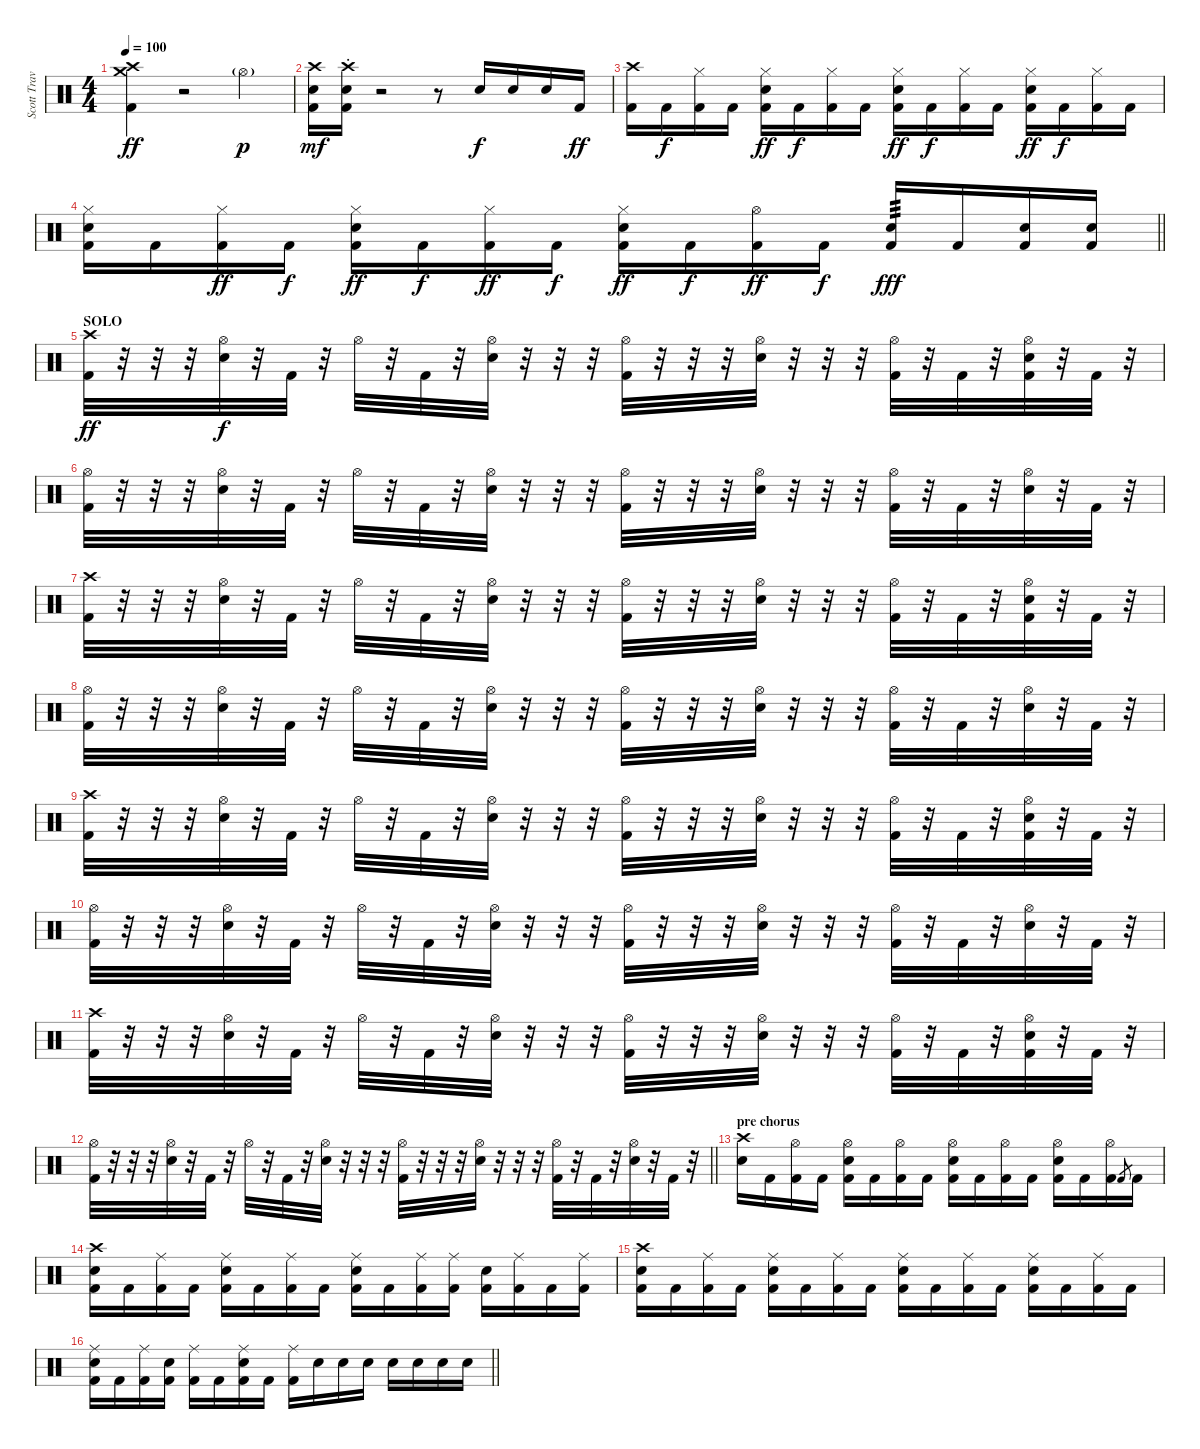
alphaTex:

\track ("Scott Travis" "Scott Trav") {instrument percussion}
\staff {score}
\articulation defaults
\ts (4 4)
\tempo 100
\clef neutral
\ks c
("Crash high (hit)" "Crash medium (hit)" "Kick (hit) 2").4{dy ff} r.2 "Hi-Hat (open)"{g}.4{dy p} |
("Crash high (hit)" "Electric Snare (hit)" "Kick (hit) 2").16{dy mf} ("Crash high (hit)"{st} "Electric Snare (hit)" "Kick (hit) 2").16 r.2 r.8 "Electric Snare (hit)".16{dy f} "Electric Snare (hit)".16 "Electric Snare (hit)".16 "Kick (hit) 2".16{dy ff} |
("Crash high (hit)" "Kick (hit) 2").16 "Kick (hit) 2".16{dy f} ("Hi-Hat (closed)" "Kick (hit) 2").16 "Kick (hit) 2".16 ("Hi-Hat (closed)" "Electric Snare (hit)" "Kick (hit) 2").16{dy ff} "Kick (hit) 2".16{dy f} ("Hi-Hat (closed)" "Kick (hit) 2").16 "Kick (hit) 2".16 ("Hi-Hat (closed)" "Electric Snare (hit)" "Kick (hit) 2").16{dy ff} "Kick (hit) 2".16{dy f} ("Hi-Hat (closed)" "Kick (hit) 2").16 "Kick (hit) 2".16 ("Hi-Hat (closed)" "Electric Snare (hit)" "Kick (hit) 2").16{dy ff} "Kick (hit) 2".16{dy f} ("Hi-Hat (closed)" "Kick (hit) 2").16 "Kick (hit) 2".16 |
\barLineRight lightlight
("Hi-Hat (closed)" "Electric Snare (hit)" "Kick (hit) 2").16 "Kick (hit) 2".16 ("Hi-Hat (closed)" "Kick (hit) 2").16{dy ff} "Kick (hit) 2".16{dy f} ("Hi-Hat (closed)" "Electric Snare (hit)" "Kick (hit) 2").16{dy ff} "Kick (hit) 2".16{dy f} ("Hi-Hat (closed)" "Kick (hit) 2").16{dy ff} "Kick (hit) 2".16{dy f} ("Hi-Hat (closed)" "Electric Snare (hit)" "Kick (hit) 2").16{dy ff} "Kick (hit) 2".16{dy f} ("Hi-Hat (open)" "Kick (hit) 2").16{dy ff} "Kick (hit) 2".16{dy f} ("Snare (hit) 2" "Kick (hit) 2").16{tp 3 dy fff} "Kick (hit) 2".16 ("Snare (hit) 2" "Kick (hit) 2").16 ("Snare (hit) 2" "Kick (hit) 2").16 |
\section ("" "SOLO")
("Crash high (hit)" "Kick (hit) 2").32{dy ff} r.32 r.32 r.32 ("Hi-Hat (open)" "Snare (hit) 2").32{dy f} r.32 "Kick (hit) 2".32 r.32 "Hi-Hat (open)".32 r.32 "Kick (hit) 2".32 r.32 ("Hi-Hat (open)" "Snare (hit) 2").32 r.32 r.32 r.32 ("Hi-Hat (open)" "Kick (hit) 2").32 r.32 r.32 r.32 ("Hi-Hat (open)" "Snare (hit) 2").32 r.32 r.32 r.32 ("Hi-Hat (open)" "Kick (hit) 2").32 r.32 "Kick (hit) 2".32 r.32 ("Hi-Hat (open)" "Snare (hit) 2" "Kick (hit) 2").32 r.32 "Kick (hit) 2".32 r.32 |
("Hi-Hat (open)" "Kick (hit) 2").32 r.32 r.32 r.32 ("Hi-Hat (open)" "Snare (hit) 2").32 r.32 "Kick (hit) 2".32 r.32 "Hi-Hat (open)".32 r.32 "Kick (hit) 2".32 r.32 ("Hi-Hat (open)" "Snare (hit) 2").32 r.32 r.32 r.32 ("Hi-Hat (open)" "Kick (hit) 2").32 r.32 r.32 r.32 ("Hi-Hat (open)" "Snare (hit) 2").32 r.32 r.32 r.32 ("Hi-Hat (open)" "Kick (hit) 2").32 r.32 "Kick (hit) 2".32 r.32 ("Hi-Hat (open)" "Snare (hit) 2").32 r.32 "Kick (hit) 2".32 r.32 |
("Crash high (hit)" "Kick (hit) 2").32 r.32 r.32 r.32 ("Hi-Hat (open)" "Snare (hit) 2").32 r.32 "Kick (hit) 2".32 r.32 "Hi-Hat (open)".32 r.32 "Kick (hit) 2".32 r.32 ("Hi-Hat (open)" "Snare (hit) 2").32 r.32 r.32 r.32 ("Hi-Hat (open)" "Kick (hit) 2").32 r.32 r.32 r.32 ("Hi-Hat (open)" "Snare (hit) 2").32 r.32 r.32 r.32 ("Hi-Hat (open)" "Kick (hit) 2").32 r.32 "Kick (hit) 2".32 r.32 ("Hi-Hat (open)" "Snare (hit) 2" "Kick (hit) 2").32 r.32 "Kick (hit) 2".32 r.32 |
("Hi-Hat (open)" "Kick (hit) 2").32 r.32 r.32 r.32 ("Hi-Hat (open)" "Snare (hit) 2").32 r.32 "Kick (hit) 2".32 r.32 "Hi-Hat (open)".32 r.32 "Kick (hit) 2".32 r.32 ("Hi-Hat (open)" "Snare (hit) 2").32 r.32 r.32 r.32 ("Hi-Hat (open)" "Kick (hit) 2").32 r.32 r.32 r.32 ("Hi-Hat (open)" "Snare (hit) 2").32 r.32 r.32 r.32 ("Hi-Hat (open)" "Kick (hit) 2").32 r.32 "Kick (hit) 2".32 r.32 ("Hi-Hat (open)" "Snare (hit) 2").32 r.32 "Kick (hit) 2".32 r.32 |
("Crash high (hit)" "Kick (hit) 2").32 r.32 r.32 r.32 ("Hi-Hat (open)" "Snare (hit) 2").32 r.32 "Kick (hit) 2".32 r.32 "Hi-Hat (open)".32 r.32 "Kick (hit) 2".32 r.32 ("Hi-Hat (open)" "Snare (hit) 2").32 r.32 r.32 r.32 ("Hi-Hat (open)" "Kick (hit) 2").32 r.32 r.32 r.32 ("Hi-Hat (open)" "Snare (hit) 2").32 r.32 r.32 r.32 ("Hi-Hat (open)" "Kick (hit) 2").32 r.32 "Kick (hit) 2".32 r.32 ("Hi-Hat (open)" "Snare (hit) 2" "Kick (hit) 2").32 r.32 "Kick (hit) 2".32 r.32 |
("Hi-Hat (open)" "Kick (hit) 2").32 r.32 r.32 r.32 ("Hi-Hat (open)" "Snare (hit) 2").32 r.32 "Kick (hit) 2".32 r.32 "Hi-Hat (open)".32 r.32 "Kick (hit) 2".32 r.32 ("Hi-Hat (open)" "Snare (hit) 2").32 r.32 r.32 r.32 ("Hi-Hat (open)" "Kick (hit) 2").32 r.32 r.32 r.32 ("Hi-Hat (open)" "Snare (hit) 2").32 r.32 r.32 r.32 ("Hi-Hat (open)" "Kick (hit) 2").32 r.32 "Kick (hit) 2".32 r.32 ("Hi-Hat (open)" "Snare (hit) 2").32 r.32 "Kick (hit) 2".32 r.32 |
("Crash high (hit)" "Kick (hit) 2").32 r.32 r.32 r.32 ("Hi-Hat (open)" "Snare (hit) 2").32 r.32 "Kick (hit) 2".32 r.32 "Hi-Hat (open)".32 r.32 "Kick (hit) 2".32 r.32 ("Hi-Hat (open)" "Snare (hit) 2").32 r.32 r.32 r.32 ("Hi-Hat (open)" "Kick (hit) 2").32 r.32 r.32 r.32 ("Hi-Hat (open)" "Snare (hit) 2").32 r.32 r.32 r.32 ("Hi-Hat (open)" "Kick (hit) 2").32 r.32 "Kick (hit) 2".32 r.32 ("Hi-Hat (open)" "Snare (hit) 2" "Kick (hit) 2").32 r.32 "Kick (hit) 2".32 r.32 |
\barLineRight lightlight
("Hi-Hat (open)" "Kick (hit) 2").32 r.32 r.32 r.32 ("Hi-Hat (open)" "Snare (hit) 2").32 r.32 "Kick (hit) 2".32 r.32 "Hi-Hat (open)".32 r.32 "Kick (hit) 2".32 r.32 ("Hi-Hat (open)" "Snare (hit) 2").32 r.32 r.32 r.32 ("Hi-Hat (open)" "Kick (hit) 2").32 r.32 r.32 r.32 ("Hi-Hat (open)" "Snare (hit) 2").32 r.32 r.32 r.32 ("Hi-Hat (open)" "Kick (hit) 2").32 r.32 "Kick (hit) 2".32 r.32 ("Hi-Hat (open)" "Snare (hit) 2").32 r.32 "Kick (hit) 2".32 r.32 |
\section ("" "pre chorus")
("Crash high (hit)" "Snare (hit) 2").16 "Kick (hit) 2".16 ("Hi-Hat (open)" "Kick (hit) 2").16 "Kick (hit) 2".16 ("Hi-Hat (open)" "Snare (hit) 2" "Kick (hit) 2").16 "Kick (hit) 2".16 ("Hi-Hat (open)" "Kick (hit) 2").16 "Kick (hit) 2".16 ("Hi-Hat (open)" "Snare (hit) 2" "Kick (hit) 2").16 "Kick (hit) 2".16 ("Hi-Hat (open)" "Kick (hit) 2").16 "Kick (hit) 2".16 ("Hi-Hat (open)" "Snare (hit) 2" "Kick (hit) 2").16 "Kick (hit) 2".16 ("Hi-Hat (open)" "Kick (hit) 2").16 "Kick (hit) 2".8{gr} "Kick (hit) 2".16 |
("Crash high (hit)" "Snare (hit) 2" "Kick (hit) 2").16 "Kick (hit) 2".16 ("Ride (middle)" "Kick (hit) 2").16 "Kick (hit) 2".16 ("Ride (middle)" "Snare (hit) 2" "Kick (hit) 2").16 "Kick (hit) 2".16 ("Ride (middle)" "Kick (hit) 2").16 "Kick (hit) 2".16 ("Ride (middle)" "Snare (hit) 2" "Kick (hit) 2").16 "Kick (hit) 2".16 ("Ride (middle)" "Kick (hit) 2").16 ("Ride (middle)" "Kick (hit) 2").16 ("Snare (hit) 2" "Kick (hit) 2").16 ("Ride (middle)" "Kick (hit) 2").16 "Kick (hit) 2".16 ("Ride (middle)" "Kick (hit) 2").16 |
("Crash high (hit)" "Snare (hit) 2" "Kick (hit) 2").16 "Kick (hit) 2".16 ("Ride (middle)" "Kick (hit) 2").16 "Kick (hit) 2".16 ("Ride (middle)" "Snare (hit) 2" "Kick (hit) 2").16 "Kick (hit) 2".16 ("Ride (middle)" "Kick (hit) 2").16 "Kick (hit) 2".16 ("Ride (middle)" "Snare (hit) 2" "Kick (hit) 2").16 "Kick (hit) 2".16 ("Ride (middle)" "Kick (hit) 2").16 "Kick (hit) 2".16 ("Ride (middle)" "Snare (hit) 2" "Kick (hit) 2").16 "Kick (hit) 2".16 ("Ride (middle)" "Kick (hit) 2").16 "Kick (hit) 2".16 |
\barLineRight lightlight
("Ride (middle)" "Snare (hit) 2" "Kick (hit) 2").16 "Kick (hit) 2".16 ("Ride (middle)" "Kick (hit) 2").16 ("Snare (hit) 2" "Kick (hit) 2").16 ("Ride (middle)" "Kick (hit) 2").16 "Kick (hit) 2".16 ("Ride (middle)" "Snare (hit) 2" "Kick (hit) 2").16 "Kick (hit) 2".16 ("Ride (middle)" "Kick (hit) 2").16 "Snare (hit) 2".16 "Snare (hit) 2".16 "Snare (hit) 2".16 "Snare (hit) 2".16 "Snare (hit) 2".16 "Snare (hit) 2".16 "Snare (hit) 2".16
